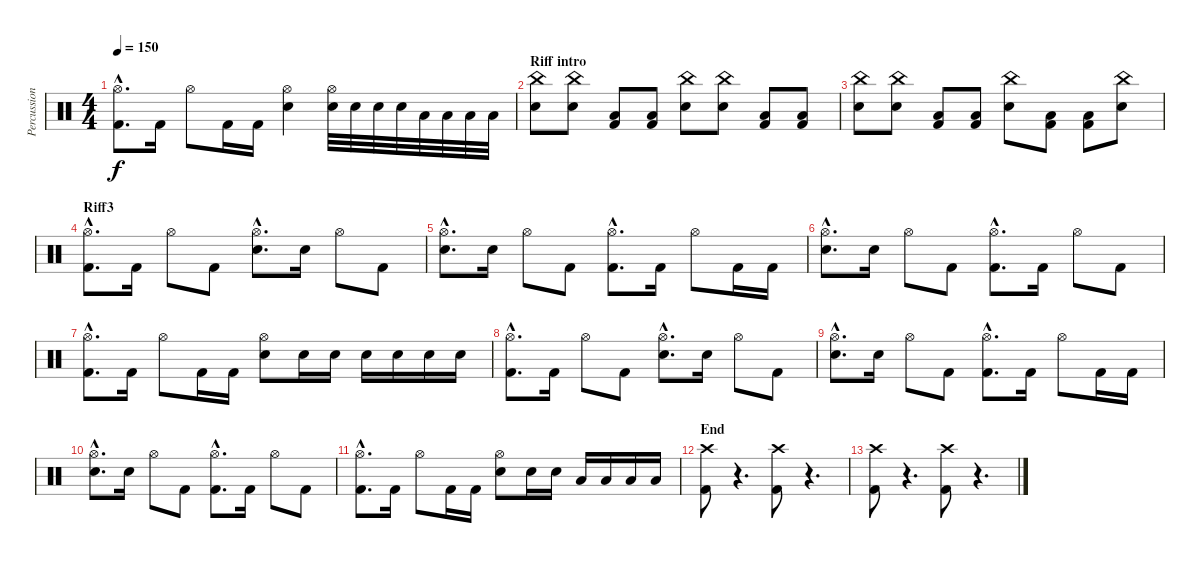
\track ("Percussions" "Percussion") {instrument percussion}
\staff {score}
\articulation defaults
\ts (4 4)
\tempo 150
\clef neutral
\ks c
("Hi-Hat (open)"{hac} "Kick (hit) 2"{hac}).8{d dy f} "Kick (hit) 2".16 "Hi-Hat (open)".8 "Kick (hit) 2".16 "Kick (hit) 2".16 ("Hi-Hat (open)" "Electric Snare (hit)").4 ("Hi-Hat (open)" "Electric Snare (hit)").32 "Electric Snare (hit)".32 "Electric Snare (hit)".32 "Electric Snare (hit)".32 "Low Floor Tom (hit)".32 "Low Floor Tom (hit)".32 "Low Floor Tom (hit)".32 "Low Floor Tom (hit)".32 |
\section ("" "Riff intro")
("China (hit)" "Electric Snare (hit)").8 ("China (hit)" "Electric Snare (hit)").8 ("Low Tom (hit)" "Kick (hit) 2").8 ("Low Floor Tom (hit)" "Kick (hit) 2").8 ("China (hit)" "Electric Snare (hit)").8 ("China (hit)" "Electric Snare (hit)").8 ("Low Tom (hit)" "Kick (hit) 2").8 ("Low Floor Tom (hit)" "Kick (hit) 2").8 |
("China (hit)" "Electric Snare (hit)").8 ("China (hit)" "Electric Snare (hit)").8 ("Low Tom (hit)" "Kick (hit) 2").8 ("Low Floor Tom (hit)" "Kick (hit) 2").8 ("China (hit)" "Electric Snare (hit)").8 ("Low Floor Tom (hit)" "Kick (hit) 2").8 ("Low Floor Tom (hit)" "Kick (hit) 2").8 ("China (hit)" "Electric Snare (hit)").8 |
\section ("" "Riff3")
("Hi-Hat (open)"{hac} "Kick (hit) 2"{hac}).8{d} "Kick (hit) 2".16 "Hi-Hat (open)".8 "Kick (hit) 2".8 ("Hi-Hat (open)"{hac} "Electric Snare (hit)"{hac}).8{d} "Electric Snare (hit)".16 "Hi-Hat (open)".8 "Kick (hit) 2".8 |
("Hi-Hat (open)"{hac} "Electric Snare (hit)"{hac}).8{d} "Electric Snare (hit)".16 "Hi-Hat (open)".8 "Kick (hit) 2".8 ("Hi-Hat (open)"{hac} "Kick (hit) 2"{hac}).8{d} "Kick (hit) 2".16 "Hi-Hat (open)".8 "Kick (hit) 2".16 "Kick (hit) 2".16 |
("Hi-Hat (open)"{hac} "Electric Snare (hit)"{hac}).8{d} "Electric Snare (hit)".16 "Hi-Hat (open)".8 "Kick (hit) 2".8 ("Hi-Hat (open)"{hac} "Kick (hit) 2"{hac}).8{d} "Kick (hit) 2".16 "Hi-Hat (open)".8 "Kick (hit) 2".8 |
("Hi-Hat (open)"{hac} "Kick (hit) 2"{hac}).8{d} "Kick (hit) 2".16 "Hi-Hat (open)".8 "Kick (hit) 2".16 "Kick (hit) 2".16 ("Hi-Hat (open)" "Electric Snare (hit)").8 "Electric Snare (hit)".16 "Electric Snare (hit)".16 "Electric Snare (hit)".16 "Electric Snare (hit)".16 "Electric Snare (hit)".16 "Electric Snare (hit)".16 |
("Hi-Hat (open)"{hac} "Kick (hit) 2"{hac}).8{d} "Kick (hit) 2".16 "Hi-Hat (open)".8 "Kick (hit) 2".8 ("Hi-Hat (open)"{hac} "Electric Snare (hit)"{hac}).8{d} "Electric Snare (hit)".16 "Hi-Hat (open)".8 "Kick (hit) 2".8 |
("Hi-Hat (open)"{hac} "Electric Snare (hit)"{hac}).8{d} "Electric Snare (hit)".16 "Hi-Hat (open)".8 "Kick (hit) 2".8 ("Hi-Hat (open)"{hac} "Kick (hit) 2"{hac}).8{d} "Kick (hit) 2".16 "Hi-Hat (open)".8 "Kick (hit) 2".16 "Kick (hit) 2".16 |
("Hi-Hat (open)"{hac} "Electric Snare (hit)"{hac}).8{d} "Electric Snare (hit)".16 "Hi-Hat (open)".8 "Kick (hit) 2".8 ("Hi-Hat (open)"{hac} "Kick (hit) 2"{hac}).8{d} "Kick (hit) 2".16 "Hi-Hat (open)".8 "Kick (hit) 2".8 |
("Hi-Hat (open)"{hac} "Kick (hit) 2"{hac}).8{d} "Kick (hit) 2".16 "Hi-Hat (open)".8 "Kick (hit) 2".16 "Kick (hit) 2".16 ("Hi-Hat (open)" "Electric Snare (hit)").8 "Electric Snare (hit)".16 "Electric Snare (hit)".16 "Low Tom (hit)".16 "Low Tom (hit)".16 "Low Floor Tom (hit)".16 "Low Floor Tom (hit)".16 |
\section ("" "End")
("Crash high (hit)" "Kick (hit) 2").8 r.4{d} ("Crash high (hit)" "Kick (hit) 2").8 r.4{d} |
("Crash high (hit)" "Kick (hit) 2").8 r.4{d} ("Crash high (hit)" "Kick (hit) 2").8 r.4{d}
